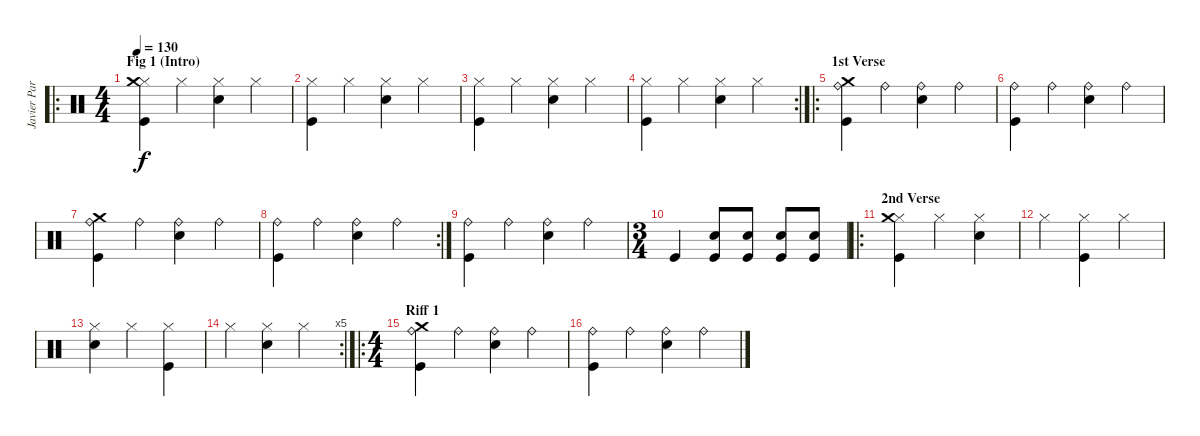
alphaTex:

\track ("Javier Partida" "Javier Par") {instrument percussion}
\staff {score}
\articulation defaults
\ro
\ts (4 4)
\section ("" "Fig 1 (Intro)")
\tempo 130
\clef neutral
\ks c
("Hi-Hat (closed)" "Kick (hit)" "Crash medium (hit)").4{dy f} "Hi-Hat (closed)".4 ("Hi-Hat (closed)" "Snare (hit) 2").4 "Hi-Hat (closed)".4 |
("Hi-Hat (closed)" "Kick (hit)").4 "Hi-Hat (closed)".4 ("Hi-Hat (closed)" "Snare (hit) 2").4 "Hi-Hat (closed)".4 |
("Hi-Hat (closed)" "Kick (hit)").4 "Hi-Hat (closed)".4 ("Hi-Hat (closed)" "Snare (hit) 2").4 "Hi-Hat (closed)".4 |
\rc 2
("Hi-Hat (closed)" "Kick (hit)").4 "Hi-Hat (closed)".4 ("Hi-Hat (closed)" "Snare (hit) 2").4 "Hi-Hat (closed)".4 |
\ro
\section ("" "1st Verse")
("Ride (bell)" "Kick (hit)" "Crash medium (hit)").4 "Ride (bell)".4 ("Ride (bell)" "Snare (hit) 2").4 "Ride (bell)".4 |
("Ride (bell)" "Kick (hit)").4 "Ride (bell)".4 ("Ride (bell)" "Snare (hit) 2").4 "Ride (bell)".4 |
("Ride (bell)" "Kick (hit)" "Crash medium (hit)").4 "Ride (bell)".4 ("Ride (bell)" "Snare (hit) 2").4 "Ride (bell)".4 |
\rc 2
("Ride (bell)" "Kick (hit)").4 "Ride (bell)".4 ("Ride (bell)" "Snare (hit) 2").4 "Ride (bell)".4 |
("Ride (bell)" "Kick (hit)").4 "Ride (bell)".4 ("Ride (bell)" "Snare (hit) 2").4 "Ride (bell)".4 |
\ts (3 4)
"Kick (hit)".4 ("Kick (hit)" "Snare (hit) 2").8 ("Kick (hit)" "Snare (hit) 2").8 ("Kick (hit)" "Snare (hit) 2").8 ("Kick (hit)" "Snare (hit) 2").8 |
\ro
\section ("" "2nd Verse")
("Hi-Hat (closed)" "Kick (hit)" "Crash medium (hit)").4 "Hi-Hat (closed)".4 ("Hi-Hat (closed)" "Snare (hit) 2").4 |
"Hi-Hat (closed)".4 ("Hi-Hat (closed)" "Kick (hit)").4 "Hi-Hat (closed)".4 |
("Hi-Hat (closed)" "Snare (hit) 2").4 "Hi-Hat (closed)".4 ("Hi-Hat (closed)" "Kick (hit)").4 |
\rc 5 "Hi-Hat (closed)".4
("Hi-Hat (closed)" "Snare (hit) 2").4 "Hi-Hat (closed)".4 |
\ro
\ts (4 4)
\section ("" "Riff 1")
("Ride (bell)" "Kick (hit)" "Crash medium (hit)").4 "Ride (bell)".4 ("Ride (bell)" "Snare (hit) 2").4 "Ride (bell)".4 |
("Ride (bell)" "Kick (hit)").4 "Ride (bell)".4 ("Ride (bell)" "Snare (hit) 2").4 "Ride (bell)".4
